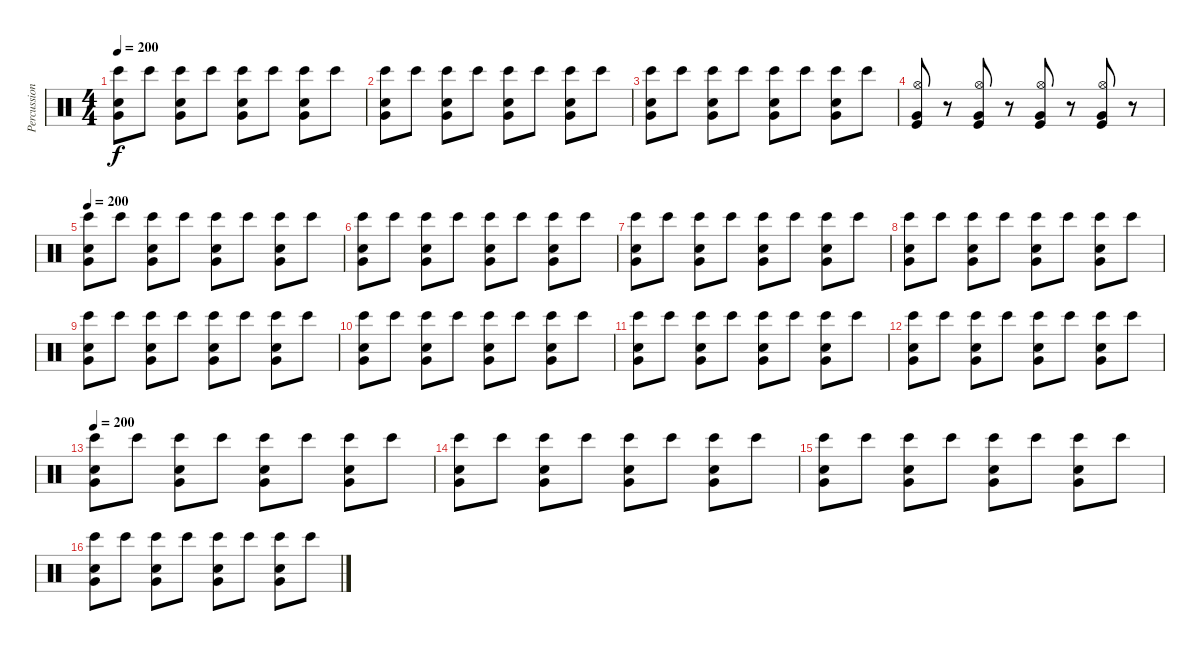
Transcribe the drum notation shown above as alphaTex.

\track ("Percussion" "Percussion") {instrument percussion}
\staff {score}
\articulation defaults
\ts (4 4)
\tempo 200
\clef neutral
\ks c
("Very Low Tom (hit)" "Bongo High (hit)" "Snare (hit) 2").8{dy f} "Bongo High (hit)".8 ("Very Low Tom (hit)" "Bongo High (hit)" "Snare (hit) 2").8 "Bongo High (hit)".8 ("Very Low Tom (hit)" "Bongo High (hit)" "Snare (hit) 2").8 "Bongo High (hit)".8 ("Very Low Tom (hit)" "Bongo High (hit)" "Snare (hit) 2").8 "Bongo High (hit)".8 |
("Very Low Tom (hit)" "Bongo High (hit)" "Snare (hit) 2").8 "Bongo High (hit)".8 ("Very Low Tom (hit)" "Bongo High (hit)" "Snare (hit) 2").8 "Bongo High (hit)".8 ("Very Low Tom (hit)" "Bongo High (hit)" "Snare (hit) 2").8 "Bongo High (hit)".8 ("Very Low Tom (hit)" "Bongo High (hit)" "Snare (hit) 2").8 "Bongo High (hit)".8 |
("Very Low Tom (hit)" "Bongo High (hit)" "Snare (hit) 2").8 "Bongo High (hit)".8 ("Very Low Tom (hit)" "Bongo High (hit)" "Snare (hit) 2").8 "Bongo High (hit)".8 ("Very Low Tom (hit)" "Bongo High (hit)" "Snare (hit) 2").8 "Bongo High (hit)".8 ("Very Low Tom (hit)" "Bongo High (hit)" "Snare (hit) 2").8 "Bongo High (hit)".8 |
("Very Low Tom (hit)" "Hi-Hat (open)" "Kick (hit)").8 r.8 ("Very Low Tom (hit)" "Hi-Hat (open)" "Kick (hit)").8 r.8 ("Very Low Tom (hit)" "Hi-Hat (open)" "Kick (hit)").8 r.8 ("Very Low Tom (hit)" "Hi-Hat (open)" "Kick (hit)").8 r.8 |
\tempo 200
("Very Low Tom (hit)" "Bongo High (hit)" "Snare (hit) 2").8 "Bongo High (hit)".8 ("Very Low Tom (hit)" "Bongo High (hit)" "Snare (hit) 2").8 "Bongo High (hit)".8 ("Very Low Tom (hit)" "Bongo High (hit)" "Snare (hit) 2").8 "Bongo High (hit)".8 ("Very Low Tom (hit)" "Bongo High (hit)" "Snare (hit) 2").8 "Bongo High (hit)".8 |
("Very Low Tom (hit)" "Bongo High (hit)" "Snare (hit) 2").8 "Bongo High (hit)".8 ("Very Low Tom (hit)" "Bongo High (hit)" "Snare (hit) 2").8 "Bongo High (hit)".8 ("Very Low Tom (hit)" "Bongo High (hit)" "Snare (hit) 2").8 "Bongo High (hit)".8 ("Very Low Tom (hit)" "Bongo High (hit)" "Snare (hit) 2").8 "Bongo High (hit)".8 |
("Very Low Tom (hit)" "Bongo High (hit)" "Snare (hit) 2").8 "Bongo High (hit)".8 ("Very Low Tom (hit)" "Bongo High (hit)" "Snare (hit) 2").8 "Bongo High (hit)".8 ("Very Low Tom (hit)" "Bongo High (hit)" "Snare (hit) 2").8 "Bongo High (hit)".8 ("Very Low Tom (hit)" "Bongo High (hit)" "Snare (hit) 2").8 "Bongo High (hit)".8 |
("Very Low Tom (hit)" "Bongo High (hit)" "Snare (hit) 2").8 "Bongo High (hit)".8 ("Very Low Tom (hit)" "Bongo High (hit)" "Snare (hit) 2").8 "Bongo High (hit)".8 ("Very Low Tom (hit)" "Bongo High (hit)" "Snare (hit) 2").8 "Bongo High (hit)".8 ("Very Low Tom (hit)" "Bongo High (hit)" "Snare (hit) 2").8 "Bongo High (hit)".8 |
("Very Low Tom (hit)" "Bongo High (hit)" "Snare (hit) 2").8 "Bongo High (hit)".8 ("Very Low Tom (hit)" "Bongo High (hit)" "Snare (hit) 2").8 "Bongo High (hit)".8 ("Very Low Tom (hit)" "Bongo High (hit)" "Snare (hit) 2").8 "Bongo High (hit)".8 ("Very Low Tom (hit)" "Bongo High (hit)" "Snare (hit) 2").8 "Bongo High (hit)".8 |
("Very Low Tom (hit)" "Bongo High (hit)" "Snare (hit) 2").8 "Bongo High (hit)".8 ("Very Low Tom (hit)" "Bongo High (hit)" "Snare (hit) 2").8 "Bongo High (hit)".8 ("Very Low Tom (hit)" "Bongo High (hit)" "Snare (hit) 2").8 "Bongo High (hit)".8 ("Very Low Tom (hit)" "Bongo High (hit)" "Snare (hit) 2").8 "Bongo High (hit)".8 |
("Very Low Tom (hit)" "Bongo High (hit)" "Snare (hit) 2").8 "Bongo High (hit)".8 ("Very Low Tom (hit)" "Bongo High (hit)" "Snare (hit) 2").8 "Bongo High (hit)".8 ("Very Low Tom (hit)" "Bongo High (hit)" "Snare (hit) 2").8 "Bongo High (hit)".8 ("Very Low Tom (hit)" "Bongo High (hit)" "Snare (hit) 2").8 "Bongo High (hit)".8 |
("Very Low Tom (hit)" "Bongo High (hit)" "Snare (hit) 2").8 "Bongo High (hit)".8 ("Very Low Tom (hit)" "Bongo High (hit)" "Snare (hit) 2").8 "Bongo High (hit)".8 ("Very Low Tom (hit)" "Bongo High (hit)" "Snare (hit) 2").8 "Bongo High (hit)".8 ("Very Low Tom (hit)" "Bongo High (hit)" "Snare (hit) 2").8 "Bongo High (hit)".8 |
\tempo 200
("Very Low Tom (hit)" "Bongo High (hit)" "Snare (hit) 2").8 "Bongo High (hit)".8 ("Very Low Tom (hit)" "Bongo High (hit)" "Snare (hit) 2").8 "Bongo High (hit)".8 ("Very Low Tom (hit)" "Bongo High (hit)" "Snare (hit) 2").8 "Bongo High (hit)".8 ("Very Low Tom (hit)" "Bongo High (hit)" "Snare (hit) 2").8 "Bongo High (hit)".8 |
("Very Low Tom (hit)" "Bongo High (hit)" "Snare (hit) 2").8 "Bongo High (hit)".8 ("Very Low Tom (hit)" "Bongo High (hit)" "Snare (hit) 2").8 "Bongo High (hit)".8 ("Very Low Tom (hit)" "Bongo High (hit)" "Snare (hit) 2").8 "Bongo High (hit)".8 ("Very Low Tom (hit)" "Bongo High (hit)" "Snare (hit) 2").8 "Bongo High (hit)".8 |
("Very Low Tom (hit)" "Bongo High (hit)" "Snare (hit) 2").8 "Bongo High (hit)".8 ("Very Low Tom (hit)" "Bongo High (hit)" "Snare (hit) 2").8 "Bongo High (hit)".8 ("Very Low Tom (hit)" "Bongo High (hit)" "Snare (hit) 2").8 "Bongo High (hit)".8 ("Very Low Tom (hit)" "Bongo High (hit)" "Snare (hit) 2").8 "Bongo High (hit)".8 |
("Very Low Tom (hit)" "Bongo High (hit)" "Snare (hit) 2").8 "Bongo High (hit)".8 ("Very Low Tom (hit)" "Bongo High (hit)" "Snare (hit) 2").8 "Bongo High (hit)".8 ("Very Low Tom (hit)" "Bongo High (hit)" "Snare (hit) 2").8 "Bongo High (hit)".8 ("Very Low Tom (hit)" "Bongo High (hit)" "Snare (hit) 2").8 "Bongo High (hit)".8
